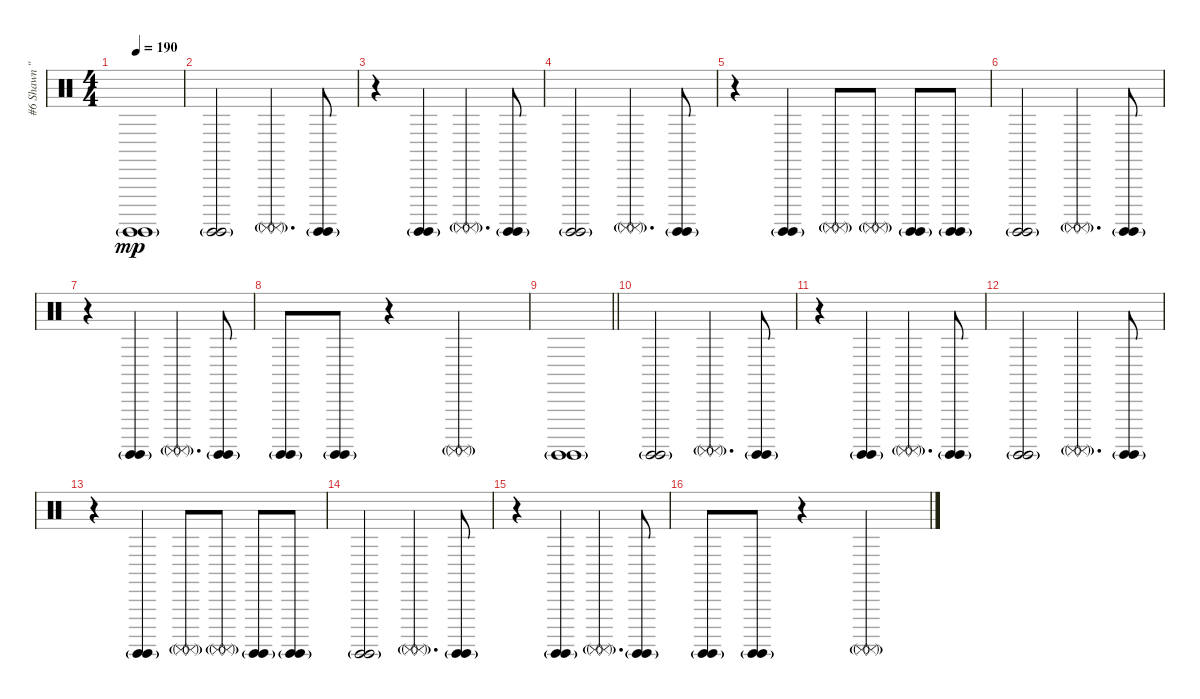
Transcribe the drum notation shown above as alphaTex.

\track ("#6 Shawn \"Clown\" Crahan" "#6 Shawn \"") {instrument percussion}
\staff {score}
\articulation defaults
\ts (4 4)
\tempo 190
\clef neutral
\ks c
("Surdo (hit)"{g} "Surdo (hit)"{g}).1{dy mp} |
("Surdo (hit)"{g} "Surdo (hit)"{g}).2 ("Surdo (mute)"{g} "Surdo (mute)"{g}).4{d} ("Surdo (hit)"{g} "Surdo (hit)"{g}).8 |
r.4 ("Surdo (hit)"{g} "Surdo (hit)"{g}).4 ("Surdo (mute)"{g} "Surdo (mute)"{g}).4{d} ("Surdo (hit)"{g} "Surdo (hit)"{g}).8 |
("Surdo (hit)"{g} "Surdo (hit)"{g}).2 ("Surdo (mute)"{g} "Surdo (mute)"{g}).4{d} ("Surdo (hit)"{g} "Surdo (hit)"{g}).8 |
r.4 ("Surdo (hit)"{g} "Surdo (hit)"{g}).4 ("Surdo (mute)"{g} "Surdo (mute)"{g}).8 ("Surdo (mute)"{g} "Surdo (mute)"{g}).8 ("Surdo (hit)"{g} "Surdo (hit)"{g}).8 ("Surdo (hit)"{g} "Surdo (hit)"{g}).8 |
("Surdo (hit)"{g} "Surdo (hit)"{g}).2 ("Surdo (mute)"{g} "Surdo (mute)"{g}).4{d} ("Surdo (hit)"{g} "Surdo (hit)"{g}).8 |
r.4 ("Surdo (hit)"{g} "Surdo (hit)"{g}).4 ("Surdo (mute)"{g} "Surdo (mute)"{g}).4{d} ("Surdo (hit)"{g} "Surdo (hit)"{g}).8 |
("Surdo (hit)"{g} "Surdo (hit)"{g}).8 ("Surdo (hit)"{g} "Surdo (hit)"{g}).8 r.4 ("Surdo (mute)"{g} "Surdo (mute)"{g}).2 |
\barLineRight lightlight
("Surdo (hit)"{g} "Surdo (hit)"{g}).1 |
("Surdo (hit)"{g} "Surdo (hit)"{g}).2 ("Surdo (mute)"{g} "Surdo (mute)"{g}).4{d} ("Surdo (hit)"{g} "Surdo (hit)"{g}).8 |
r.4 ("Surdo (hit)"{g} "Surdo (hit)"{g}).4 ("Surdo (mute)"{g} "Surdo (mute)"{g}).4{d} ("Surdo (hit)"{g} "Surdo (hit)"{g}).8 |
("Surdo (hit)"{g} "Surdo (hit)"{g}).2 ("Surdo (mute)"{g} "Surdo (mute)"{g}).4{d} ("Surdo (hit)"{g} "Surdo (hit)"{g}).8 |
r.4 ("Surdo (hit)"{g} "Surdo (hit)"{g}).4 ("Surdo (mute)"{g} "Surdo (mute)"{g}).8 ("Surdo (mute)"{g} "Surdo (mute)"{g}).8 ("Surdo (hit)"{g} "Surdo (hit)"{g}).8 ("Surdo (hit)"{g} "Surdo (hit)"{g}).8 |
("Surdo (hit)"{g} "Surdo (hit)"{g}).2 ("Surdo (mute)"{g} "Surdo (mute)"{g}).4{d} ("Surdo (hit)"{g} "Surdo (hit)"{g}).8 |
r.4 ("Surdo (hit)"{g} "Surdo (hit)"{g}).4 ("Surdo (mute)"{g} "Surdo (mute)"{g}).4{d} ("Surdo (hit)"{g} "Surdo (hit)"{g}).8 |
("Surdo (hit)"{g} "Surdo (hit)"{g}).8 ("Surdo (hit)"{g} "Surdo (hit)"{g}).8 r.4 ("Surdo (mute)"{g} "Surdo (mute)"{g}).2
